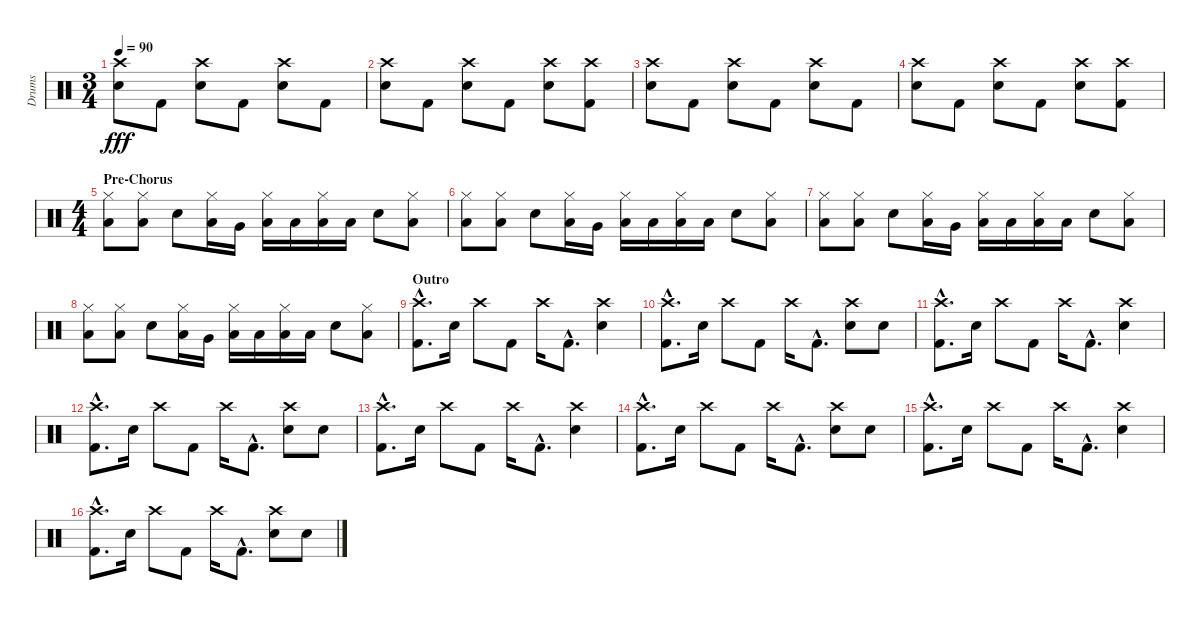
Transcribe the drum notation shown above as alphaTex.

\track ("Drums" "Drums") {instrument percussion}
\staff {score}
\articulation defaults
\ts (3 4)
\tempo 90
\clef neutral
\ks c
("Crash high (hit)" "Electric Snare (hit)").8{dy fff} "Kick (hit) 2".8 ("Crash high (hit)" "Electric Snare (hit)").8 "Kick (hit) 2".8 ("Crash high (hit)" "Electric Snare (hit)").8 "Kick (hit) 2".8 |
("Crash high (hit)" "Electric Snare (hit)").8 "Kick (hit) 2".8 ("Crash high (hit)" "Electric Snare (hit)").8 "Kick (hit) 2".8 ("Crash high (hit)" "Electric Snare (hit)").8 ("Crash high (hit)" "Kick (hit) 2").8 |
("Crash high (hit)" "Electric Snare (hit)").8 "Kick (hit) 2".8 ("Crash high (hit)" "Electric Snare (hit)").8 "Kick (hit) 2".8 ("Crash high (hit)" "Electric Snare (hit)").8 "Kick (hit) 2".8 |
("Crash high (hit)" "Electric Snare (hit)").8 "Kick (hit) 2".8 ("Crash high (hit)" "Electric Snare (hit)").8 "Kick (hit) 2".8 ("Crash high (hit)" "Electric Snare (hit)").8 ("Crash high (hit)" "Kick (hit) 2").8 |
\ts (4 4)
\section ("" "Pre-Chorus")
("Low Tom (hit)" "Hi-Hat (closed)").8 ("Low Tom (hit)" "Hi-Hat (closed)").8 "Electric Snare (hit)".8 ("Low Tom (hit)" "Hi-Hat (closed)").16 "Very Low Tom (hit)".16 ("Low Floor Tom (hit)" "Hi-Hat (closed)").16 "Low Floor Tom (hit)".16 ("Low Floor Tom (hit)" "Hi-Hat (closed)").16 "Low Floor Tom (hit)".16 "Electric Snare (hit)".8 ("Low Tom (hit)" "Hi-Hat (closed)").8 |
("Low Tom (hit)" "Hi-Hat (closed)").8 ("Low Tom (hit)" "Hi-Hat (closed)").8 "Electric Snare (hit)".8 ("Low Tom (hit)" "Hi-Hat (closed)").16 "Very Low Tom (hit)".16 ("Low Floor Tom (hit)" "Hi-Hat (closed)").16 "Low Floor Tom (hit)".16 ("Low Floor Tom (hit)" "Hi-Hat (closed)").16 "Low Floor Tom (hit)".16 "Electric Snare (hit)".8 ("Low Tom (hit)" "Hi-Hat (closed)").8 |
("Low Tom (hit)" "Hi-Hat (closed)").8 ("Low Tom (hit)" "Hi-Hat (closed)").8 "Electric Snare (hit)".8 ("Low Tom (hit)" "Hi-Hat (closed)").16 "Very Low Tom (hit)".16 ("Low Floor Tom (hit)" "Hi-Hat (closed)").16 "Low Floor Tom (hit)".16 ("Low Floor Tom (hit)" "Hi-Hat (closed)").16 "Low Floor Tom (hit)".16 "Electric Snare (hit)".8 ("Low Tom (hit)" "Hi-Hat (closed)").8 |
("Low Tom (hit)" "Hi-Hat (closed)").8 ("Low Tom (hit)" "Hi-Hat (closed)").8 "Electric Snare (hit)".8 ("Low Tom (hit)" "Hi-Hat (closed)").16 "Very Low Tom (hit)".16 ("Low Floor Tom (hit)" "Hi-Hat (closed)").16 "Low Floor Tom (hit)".16 ("Low Floor Tom (hit)" "Hi-Hat (closed)").16 "Low Floor Tom (hit)".16 "Electric Snare (hit)".8 ("Low Tom (hit)" "Hi-Hat (closed)").8 |
\section ("" "Outro")
("Crash high (hit)"{hac} "Kick (hit) 2"{hac}).8{d} "Electric Snare (hit)".16 "Crash high (hit)".8 "Kick (hit) 2".8 "Crash high (hit)".16 "Kick (hit) 2"{hac}.8{d} ("Crash high (hit)" "Electric Snare (hit)").4 |
("Crash high (hit)"{hac} "Kick (hit) 2"{hac}).8{d} "Electric Snare (hit)".16 "Crash high (hit)".8 "Kick (hit) 2".8 "Crash high (hit)".16 "Kick (hit) 2"{hac}.8{d} ("Crash high (hit)" "Electric Snare (hit)").8 "Electric Snare (hit)".8 |
("Crash high (hit)"{hac} "Kick (hit) 2"{hac}).8{d} "Electric Snare (hit)".16 "Crash high (hit)".8 "Kick (hit) 2".8 "Crash high (hit)".16 "Kick (hit) 2"{hac}.8{d} ("Crash high (hit)" "Electric Snare (hit)").4 |
("Crash high (hit)"{hac} "Kick (hit) 2"{hac}).8{d} "Electric Snare (hit)".16 "Crash high (hit)".8 "Kick (hit) 2".8 "Crash high (hit)".16 "Kick (hit) 2"{hac}.8{d} ("Crash high (hit)" "Electric Snare (hit)").8 "Electric Snare (hit)".8 |
("Crash high (hit)"{hac} "Kick (hit) 2"{hac}).8{d} "Electric Snare (hit)".16 "Crash high (hit)".8 "Kick (hit) 2".8 "Crash high (hit)".16 "Kick (hit) 2"{hac}.8{d} ("Crash high (hit)" "Electric Snare (hit)").4 |
("Crash high (hit)"{hac} "Kick (hit) 2"{hac}).8{d} "Electric Snare (hit)".16 "Crash high (hit)".8 "Kick (hit) 2".8 "Crash high (hit)".16 "Kick (hit) 2"{hac}.8{d} ("Crash high (hit)" "Electric Snare (hit)").8 "Electric Snare (hit)".8 |
("Crash high (hit)"{hac} "Kick (hit) 2"{hac}).8{d} "Electric Snare (hit)".16 "Crash high (hit)".8 "Kick (hit) 2".8 "Crash high (hit)".16 "Kick (hit) 2"{hac}.8{d} ("Crash high (hit)" "Electric Snare (hit)").4 |
("Crash high (hit)"{hac} "Kick (hit) 2"{hac}).8{d} "Electric Snare (hit)".16 "Crash high (hit)".8 "Kick (hit) 2".8 "Crash high (hit)".16 "Kick (hit) 2"{hac}.8{d} ("Crash high (hit)" "Electric Snare (hit)").8 "Electric Snare (hit)".8
